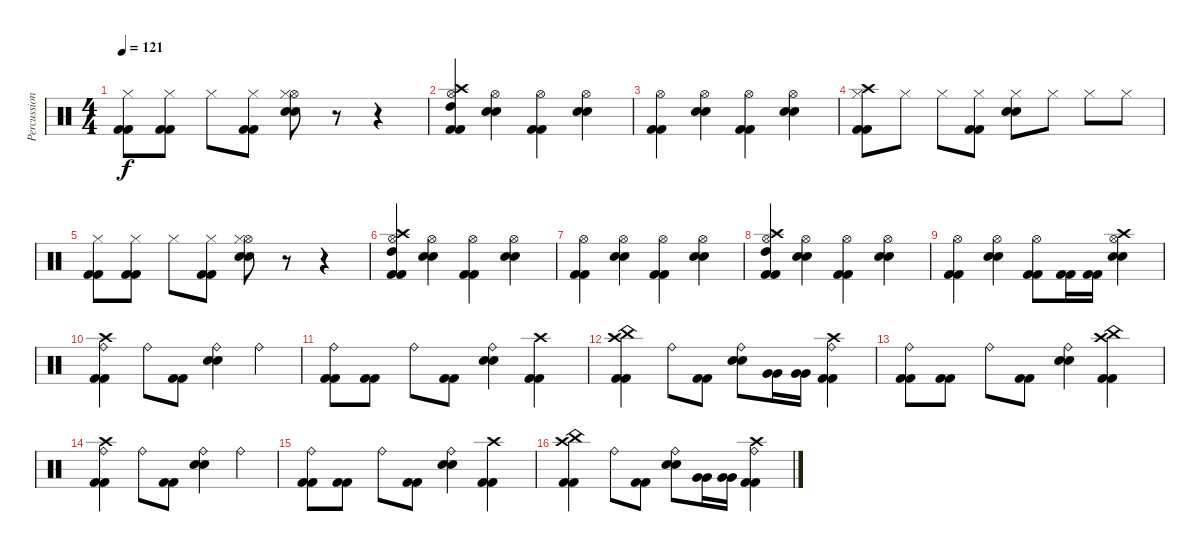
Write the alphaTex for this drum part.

\track ("Percussion" "Percussion") {instrument percussion}
\staff {score}
\articulation defaults
\ts (4 4)
\tempo 121
\clef neutral
\ks c
("Hi-Hat (closed)" "Kick (hit) 2" "Kick (hit) 2").8{dy f} ("Hi-Hat (closed)" "Kick (hit) 2" "Kick (hit) 2").8 "Hi-Hat (closed)".8 ("Hi-Hat (closed)" "Kick (hit) 2" "Kick (hit) 2").8 ("Hi-Hat (open)" "Hi-Hat (closed)" "Electric Snare (hit)" "Electric Snare (hit)").8 r.8 r.4 |
("Crash high (hit)" "High Tom (hit)" "Hi-Hat (open)" "Kick (hit) 2" "Kick (hit) 2").4 ("Hi-Hat (open)" "Electric Snare (hit)" "Electric Snare (hit)").4 ("Hi-Hat (open)" "Kick (hit) 2" "Kick (hit) 2").4 ("Hi-Hat (open)" "Electric Snare (hit)" "Electric Snare (hit)").4 |
("Hi-Hat (open)" "Kick (hit) 2" "Kick (hit) 2").4 ("Hi-Hat (open)" "Electric Snare (hit)" "Electric Snare (hit)").4 ("Hi-Hat (open)" "Kick (hit) 2" "Kick (hit) 2").4 ("Hi-Hat (open)" "Electric Snare (hit)" "Electric Snare (hit)").4 |
("Crash high (hit)" "Hi-Hat (closed)" "Kick (hit) 2" "Kick (hit) 2").8 "Hi-Hat (closed)".8 "Hi-Hat (closed)".8 ("Hi-Hat (closed)" "Kick (hit) 2" "Kick (hit) 2").8 ("Hi-Hat (closed)" "Electric Snare (hit)" "Electric Snare (hit)").8 "Hi-Hat (closed)".8 "Hi-Hat (closed)".8 "Hi-Hat (closed)".8 |
("Hi-Hat (closed)" "Kick (hit) 2" "Kick (hit) 2").8 ("Hi-Hat (closed)" "Kick (hit) 2" "Kick (hit) 2").8 "Hi-Hat (closed)".8 ("Hi-Hat (closed)" "Kick (hit) 2" "Kick (hit) 2").8 ("Hi-Hat (open)" "Hi-Hat (closed)" "Electric Snare (hit)" "Electric Snare (hit)").8 r.8 r.4 |
("Crash high (hit)" "High Tom (hit)" "Hi-Hat (open)" "Kick (hit) 2" "Kick (hit) 2").4 ("Hi-Hat (open)" "Electric Snare (hit)" "Electric Snare (hit)").4 ("Hi-Hat (open)" "Kick (hit) 2" "Kick (hit) 2").4 ("Hi-Hat (open)" "Electric Snare (hit)" "Electric Snare (hit)").4 |
("Hi-Hat (open)" "Kick (hit) 2" "Kick (hit) 2").4 ("Hi-Hat (open)" "Electric Snare (hit)" "Electric Snare (hit)").4 ("Hi-Hat (open)" "Kick (hit) 2" "Kick (hit) 2").4 ("Hi-Hat (open)" "Electric Snare (hit)" "Electric Snare (hit)").4 |
("Crash high (hit)" "High Tom (hit)" "Hi-Hat (open)" "Kick (hit) 2" "Kick (hit) 2").4 ("Hi-Hat (open)" "Electric Snare (hit)" "Electric Snare (hit)").4 ("Hi-Hat (open)" "Kick (hit) 2" "Kick (hit) 2").4 ("Hi-Hat (open)" "Electric Snare (hit)" "Electric Snare (hit)").4 |
("Hi-Hat (open)" "Kick (hit) 2" "Kick (hit) 2").4 ("Hi-Hat (open)" "Electric Snare (hit)" "Electric Snare (hit)").4 ("Hi-Hat (open)" "Kick (hit) 2" "Kick (hit) 2").8 ("Kick (hit) 2" "Kick (hit) 2").16 ("Kick (hit) 2" "Kick (hit) 2").16 ("Crash high (hit)" "Hi-Hat (open)" "Electric Snare (hit)" "Electric Snare (hit)").4 |
("Crash high (hit)" "Ride (bell)" "Kick (hit) 2" "Kick (hit) 2").4 "Ride (bell)".8 ("Kick (hit) 2" "Kick (hit) 2").8 ("Ride (bell)" "Electric Snare (hit)" "Electric Snare (hit)").4 "Ride (bell)".4 |
("Ride (bell)" "Kick (hit) 2" "Kick (hit) 2").8 ("Kick (hit) 2" "Kick (hit) 2").8 "Ride (bell)".8 ("Kick (hit) 2" "Kick (hit) 2").8 ("Ride (bell)" "Electric Snare (hit)" "Electric Snare (hit)").4 ("Crash high (hit)" "Kick (hit) 2" "Kick (hit) 2").4 |
("China (hit)" "Crash high (hit)" "Kick (hit) 2" "Kick (hit) 2").4 "Ride (bell)".8 ("Kick (hit) 2" "Kick (hit) 2").8 ("Ride (bell)" "Electric Snare (hit)" "Electric Snare (hit)").8 ("Very Low Tom (hit)" "Very Low Tom (hit)").16 ("Very Low Tom (hit)" "Very Low Tom (hit)").16 ("Crash high (hit)" "Ride (bell)" "Kick (hit) 2" "Kick (hit) 2").4 |
("Ride (bell)" "Kick (hit) 2" "Kick (hit) 2").8 ("Kick (hit) 2" "Kick (hit) 2").8 "Ride (bell)".8 ("Kick (hit) 2" "Kick (hit) 2").8 ("Ride (bell)" "Electric Snare (hit)" "Electric Snare (hit)").4 ("Crash high (hit)" "China (hit)" "Kick (hit) 2" "Kick (hit) 2").4 |
("Crash high (hit)" "Ride (bell)" "Kick (hit) 2" "Kick (hit) 2").4 "Ride (bell)".8 ("Kick (hit) 2" "Kick (hit) 2").8 ("Ride (bell)" "Electric Snare (hit)" "Electric Snare (hit)").4 "Ride (bell)".4 |
("Ride (bell)" "Kick (hit) 2" "Kick (hit) 2").8 ("Kick (hit) 2" "Kick (hit) 2").8 "Ride (bell)".8 ("Kick (hit) 2" "Kick (hit) 2").8 ("Ride (bell)" "Electric Snare (hit)" "Electric Snare (hit)").4 ("Crash high (hit)" "Kick (hit) 2" "Kick (hit) 2").4 |
("China (hit)" "Crash high (hit)" "Kick (hit) 2" "Kick (hit) 2").4 "Ride (bell)".8 ("Kick (hit) 2" "Kick (hit) 2").8 ("Ride (bell)" "Electric Snare (hit)" "Electric Snare (hit)").8 ("Very Low Tom (hit)" "Very Low Tom (hit)").16 ("Very Low Tom (hit)" "Very Low Tom (hit)").16 ("Crash high (hit)" "Ride (bell)" "Kick (hit) 2" "Kick (hit) 2").4
